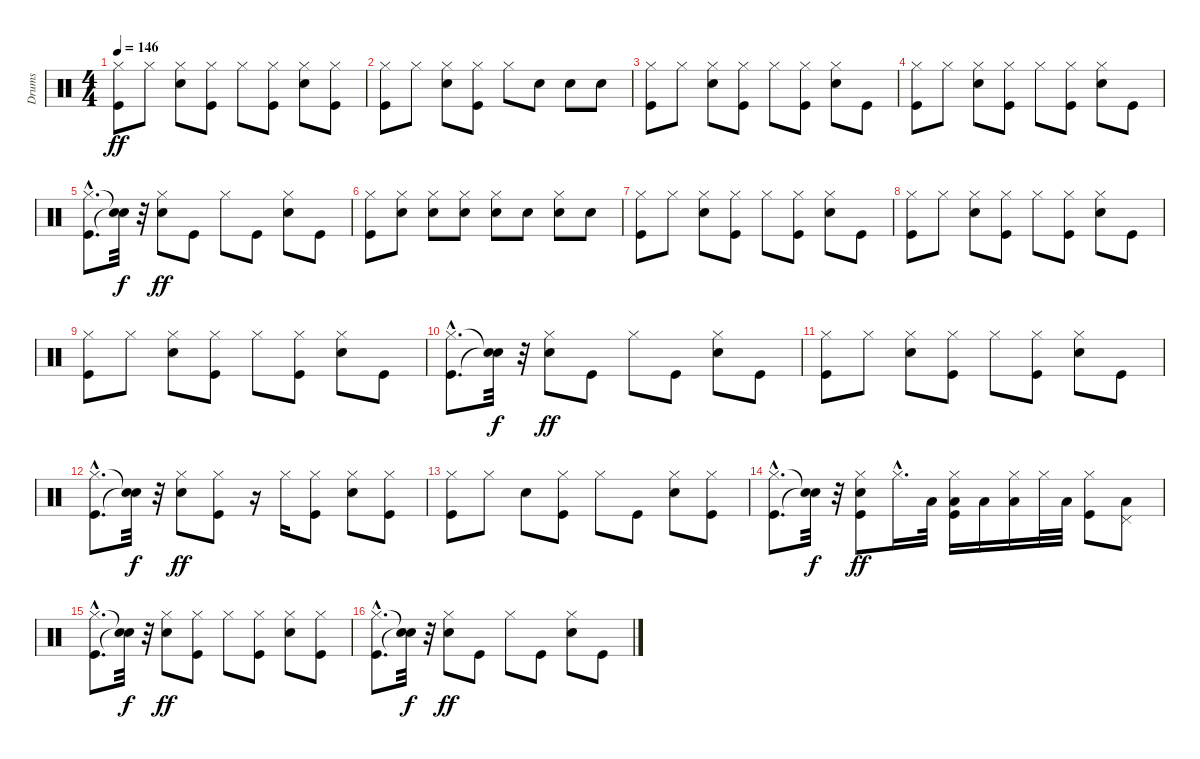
\track ("Drums" "Drums") {instrument percussion}
\staff {score}
\articulation defaults
\ts (4 4)
\tempo 146
\clef neutral
\ks c
("Kick (hit)" "Hi-Hat (closed)").8{dy ff} "Hi-Hat (closed)".8 ("Snare (hit) 2" "Hi-Hat (closed)").8 ("Kick (hit)" "Hi-Hat (closed)").8 "Hi-Hat (closed)".8 ("Kick (hit)" "Hi-Hat (closed)").8 ("Snare (hit) 2" "Hi-Hat (closed)").8 ("Kick (hit)" "Hi-Hat (closed)").8 |
("Kick (hit)" "Hi-Hat (closed)").8 "Hi-Hat (closed)".8 ("Snare (hit) 2" "Hi-Hat (closed)").8 ("Kick (hit)" "Hi-Hat (closed)").8 "Hi-Hat (closed)".8 "Snare (hit) 2".8 "Snare (hit) 2".8 "Snare (hit) 2".8 |
("Kick (hit)" "Hi-Hat (closed)").8 "Hi-Hat (closed)".8 ("Snare (hit) 2" "Hi-Hat (closed)").8 ("Kick (hit)" "Hi-Hat (closed)").8 "Hi-Hat (closed)".8 ("Kick (hit)" "Hi-Hat (closed)").8 ("Snare (hit) 2" "Hi-Hat (closed)").8 "Kick (hit)".8 |
("Kick (hit)" "Hi-Hat (closed)").8 "Hi-Hat (closed)".8 ("Snare (hit) 2" "Hi-Hat (closed)").8 ("Kick (hit)" "Hi-Hat (closed)").8 "Hi-Hat (closed)".8 ("Kick (hit)" "Hi-Hat (closed)").8 ("Snare (hit) 2" "Hi-Hat (closed)").8 "Kick (hit)".8 |
("Kick (hit)"{hac} "Hi-Hat (closed)"{hac}).8{d} ("Snare (hit)"{t} "Snare (hit)"{t}).32{dy f} r.32 ("Snare (hit) 2" "Hi-Hat (closed)").8{dy ff} "Kick (hit)".8 "Hi-Hat (closed)".8 "Kick (hit)".8 ("Snare (hit) 2" "Hi-Hat (closed)").8 "Kick (hit)".8 |
("Kick (hit)" "Hi-Hat (closed)").8 ("Snare (hit) 2" "Hi-Hat (closed)").8 ("Snare (hit) 2" "Hi-Hat (closed)").8 ("Snare (hit) 2" "Hi-Hat (closed)").8 ("Snare (hit) 2" "Hi-Hat (closed)").8 "Snare (hit) 2".8 ("Snare (hit) 2" "Hi-Hat (closed)").8 "Snare (hit) 2".8 |
("Kick (hit)" "Hi-Hat (closed)").8 "Hi-Hat (closed)".8 ("Snare (hit) 2" "Hi-Hat (closed)").8 ("Kick (hit)" "Hi-Hat (closed)").8 "Hi-Hat (closed)".8 ("Kick (hit)" "Hi-Hat (closed)").8 ("Snare (hit) 2" "Hi-Hat (closed)").8 "Kick (hit)".8 |
("Kick (hit)" "Hi-Hat (closed)").8 "Hi-Hat (closed)".8 ("Snare (hit) 2" "Hi-Hat (closed)").8 ("Kick (hit)" "Hi-Hat (closed)").8 "Hi-Hat (closed)".8 ("Kick (hit)" "Hi-Hat (closed)").8 ("Snare (hit) 2" "Hi-Hat (closed)").8 "Kick (hit)".8 |
("Kick (hit)" "Hi-Hat (closed)").8 "Hi-Hat (closed)".8 ("Snare (hit) 2" "Hi-Hat (closed)").8 ("Kick (hit)" "Hi-Hat (closed)").8 "Hi-Hat (closed)".8 ("Kick (hit)" "Hi-Hat (closed)").8 ("Snare (hit) 2" "Hi-Hat (closed)").8 "Kick (hit)".8 |
("Kick (hit)"{hac} "Hi-Hat (closed)"{hac}).8{d} ("Snare (hit)"{t} "Snare (hit)"{t}).32{dy f} r.32 ("Snare (hit) 2" "Hi-Hat (closed)").8{dy ff} "Kick (hit)".8 "Hi-Hat (closed)".8 "Kick (hit)".8 ("Snare (hit) 2" "Hi-Hat (closed)").8 "Kick (hit)".8 |
("Kick (hit)" "Hi-Hat (closed)").8 "Hi-Hat (closed)".8 ("Snare (hit) 2" "Hi-Hat (closed)").8 ("Kick (hit)" "Hi-Hat (closed)").8 "Hi-Hat (closed)".8 ("Kick (hit)" "Hi-Hat (closed)").8 ("Snare (hit) 2" "Hi-Hat (closed)").8 "Kick (hit)".8 |
("Kick (hit)"{hac} "Hi-Hat (closed)"{hac}).8{d} ("Snare (hit)"{t} "Snare (hit)"{t}).32{dy f} r.32 ("Snare (hit) 2" "Hi-Hat (closed)").8{dy ff} ("Kick (hit)" "Hi-Hat (closed)").8 r.16 "Hi-Hat (closed)".16 ("Kick (hit)" "Hi-Hat (closed)").8 ("Snare (hit) 2" "Hi-Hat (closed)").8 ("Kick (hit)" "Hi-Hat (closed)").8 |
("Kick (hit)" "Hi-Hat (closed)").8 "Hi-Hat (closed)".8 "Snare (hit) 2".8 ("Kick (hit)" "Hi-Hat (closed)").8 "Hi-Hat (closed)".8 "Kick (hit)".8 ("Snare (hit) 2" "Hi-Hat (closed)").8 ("Kick (hit)" "Hi-Hat (closed)").8 |
("Kick (hit)"{hac} "Hi-Hat (closed)"{hac}).8{d} ("Snare (hit)"{t} "Snare (hit)"{t}).32{dy f} r.32 ("Kick (hit)" "Snare (hit) 2" "Hi-Hat (closed)").8{dy ff} "Hi-Hat (closed)"{hac}.16{d} "Low Tom (hit)".32 ("Kick (hit)" "Hi-Hat (closed)" "Low Tom (hit)").16 "Low Tom (hit)".16 ("Hi-Hat (closed)" "Low Tom (hit)").16 "Hi-Hat (closed)".32 "Low Floor Tom (hit)".32 ("Kick (hit)" "Hi-Hat (closed)").8 ("Low Floor Tom (hit)" "Pedal Hi-Hat (hit)").8 |
("Kick (hit)"{hac} "Hi-Hat (closed)"{hac}).8{d} ("Snare (hit)"{t} "Snare (hit)"{t}).32{dy f} r.32 ("Snare (hit) 2" "Hi-Hat (closed)").8{dy ff} ("Kick (hit)" "Hi-Hat (closed)").8 "Hi-Hat (closed)".8 ("Kick (hit)" "Hi-Hat (closed)").8 ("Snare (hit) 2" "Hi-Hat (closed)").8 ("Kick (hit)" "Hi-Hat (closed)").8 |
("Kick (hit)"{hac} "Hi-Hat (closed)"{hac}).8{d} ("Snare (hit)"{t} "Snare (hit)"{t}).32{dy f} r.32 ("Snare (hit) 2" "Hi-Hat (closed)").8{dy ff} "Kick (hit)".8 "Hi-Hat (closed)".8 "Kick (hit)".8 ("Snare (hit) 2" "Hi-Hat (closed)").8 "Kick (hit)".8
